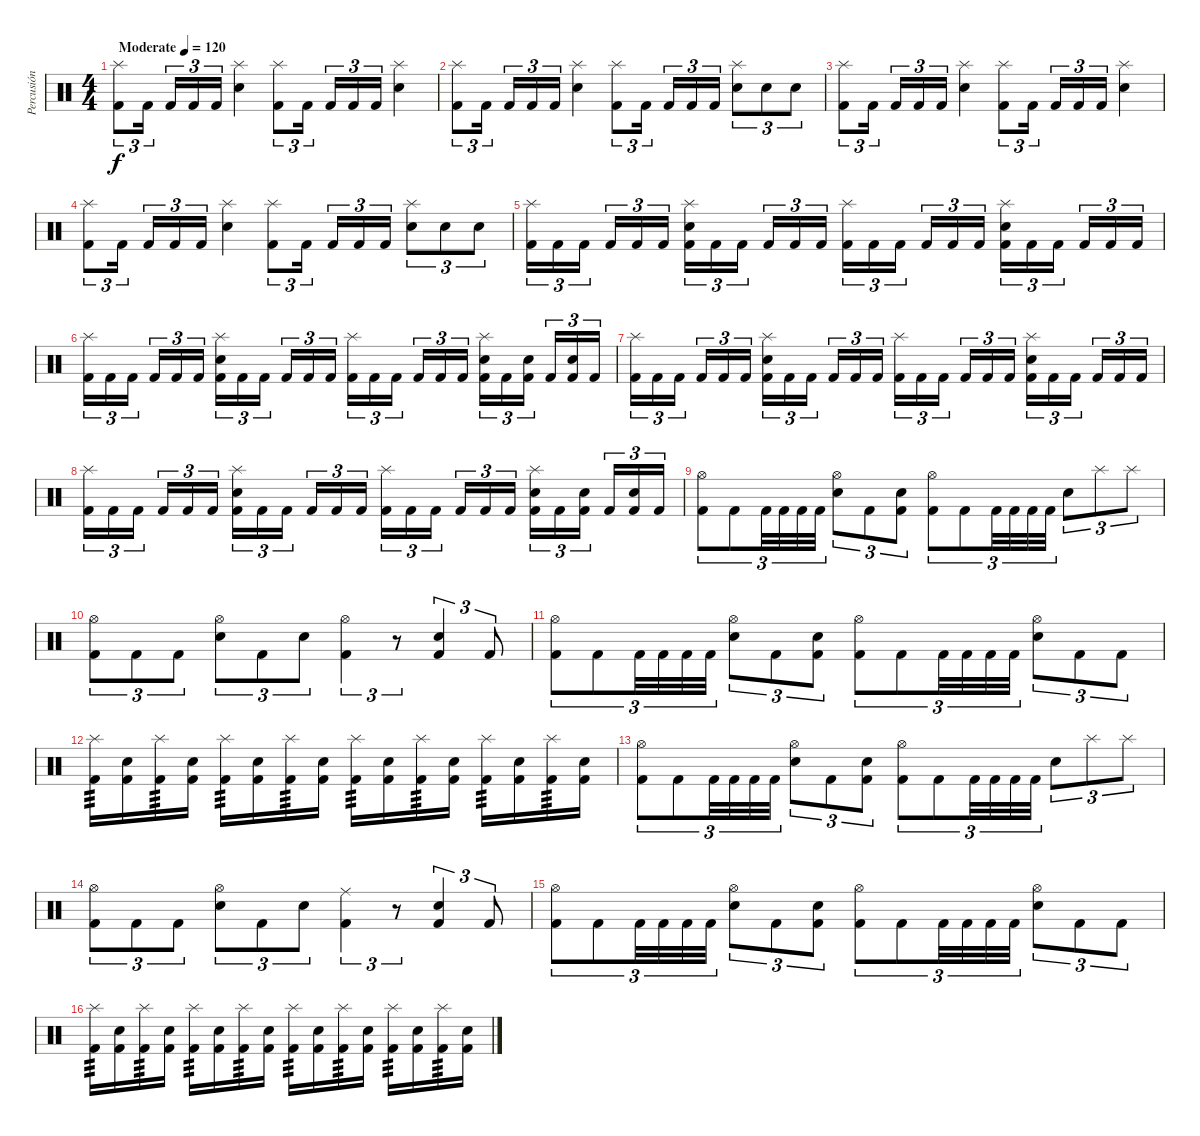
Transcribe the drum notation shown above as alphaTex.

\track ("Percusión" "Percusión") {instrument percussion}
\staff {score}
\articulation defaults
\ts (4 4)
\tempo (120 "Moderate")
\clef neutral
\ks c
("Splash (hit)" "Kick (hit) 2").8{tu (3 2) dy f} "Kick (hit) 2".16{tu (3 2) beam splitsecondary} "Kick (hit) 2".16{tu (3 2)} "Kick (hit) 2".16{tu (3 2)} "Kick (hit) 2".16{tu (3 2)} ("Splash (hit)" "Electric Snare (hit)").4 ("Splash (hit)" "Kick (hit) 2").8{tu (3 2)} "Kick (hit) 2".16{tu (3 2) beam splitsecondary} "Kick (hit) 2".16{tu (3 2)} "Kick (hit) 2".16{tu (3 2)} "Kick (hit) 2".16{tu (3 2)} ("Splash (hit)" "Electric Snare (hit)").4 |
("Splash (hit)" "Kick (hit) 2").8{tu (3 2)} "Kick (hit) 2".16{tu (3 2) beam splitsecondary} "Kick (hit) 2".16{tu (3 2)} "Kick (hit) 2".16{tu (3 2)} "Kick (hit) 2".16{tu (3 2)} ("Splash (hit)" "Electric Snare (hit)").4 ("Splash (hit)" "Kick (hit) 2").8{tu (3 2)} "Kick (hit) 2".16{tu (3 2) beam splitsecondary} "Kick (hit) 2".16{tu (3 2)} "Kick (hit) 2".16{tu (3 2)} "Kick (hit) 2".16{tu (3 2)} ("Splash (hit)" "Electric Snare (hit)").8{tu (3 2)} "Electric Snare (hit)".8{tu (3 2)} "Electric Snare (hit)".8{tu (3 2)} |
("Splash (hit)" "Kick (hit) 2").8{tu (3 2)} "Kick (hit) 2".16{tu (3 2) beam splitsecondary} "Kick (hit) 2".16{tu (3 2)} "Kick (hit) 2".16{tu (3 2)} "Kick (hit) 2".16{tu (3 2)} ("Splash (hit)" "Electric Snare (hit)").4 ("Splash (hit)" "Kick (hit) 2").8{tu (3 2)} "Kick (hit) 2".16{tu (3 2) beam splitsecondary} "Kick (hit) 2".16{tu (3 2)} "Kick (hit) 2".16{tu (3 2)} "Kick (hit) 2".16{tu (3 2)} ("Splash (hit)" "Electric Snare (hit)").4 |
("Splash (hit)" "Kick (hit) 2").8{tu (3 2)} "Kick (hit) 2".16{tu (3 2) beam splitsecondary} "Kick (hit) 2".16{tu (3 2)} "Kick (hit) 2".16{tu (3 2)} "Kick (hit) 2".16{tu (3 2)} ("Splash (hit)" "Electric Snare (hit)").4 ("Splash (hit)" "Kick (hit) 2").8{tu (3 2)} "Kick (hit) 2".16{tu (3 2) beam splitsecondary} "Kick (hit) 2".16{tu (3 2)} "Kick (hit) 2".16{tu (3 2)} "Kick (hit) 2".16{tu (3 2)} ("Splash (hit)" "Electric Snare (hit)").8{tu (3 2)} "Electric Snare (hit)".8{tu (3 2)} "Electric Snare (hit)".8{tu (3 2)} |
("Splash (hit)" "Kick (hit) 2").16{tu (3 2)} "Kick (hit) 2".16{tu (3 2)} "Kick (hit) 2".16{tu (3 2) beam splitsecondary} "Kick (hit) 2".16{tu (3 2)} "Kick (hit) 2".16{tu (3 2)} "Kick (hit) 2".16{tu (3 2)} ("Splash (hit)" "Electric Snare (hit)" "Kick (hit) 2").16{tu (3 2)} "Kick (hit) 2".16{tu (3 2)} "Kick (hit) 2".16{tu (3 2) beam splitsecondary} "Kick (hit) 2".16{tu (3 2)} "Kick (hit) 2".16{tu (3 2)} "Kick (hit) 2".16{tu (3 2)} ("Splash (hit)" "Kick (hit) 2").16{tu (3 2)} "Kick (hit) 2".16{tu (3 2)} "Kick (hit) 2".16{tu (3 2) beam splitsecondary} "Kick (hit) 2".16{tu (3 2)} "Kick (hit) 2".16{tu (3 2)} "Kick (hit) 2".16{tu (3 2)} ("Splash (hit)" "Electric Snare (hit)" "Kick (hit) 2").16{tu (3 2)} "Kick (hit) 2".16{tu (3 2)} "Kick (hit) 2".16{tu (3 2) beam splitsecondary} "Kick (hit) 2".16{tu (3 2)} "Kick (hit) 2".16{tu (3 2)} "Kick (hit) 2".16{tu (3 2)} |
("Splash (hit)" "Kick (hit) 2").16{tu (3 2)} "Kick (hit) 2".16{tu (3 2)} "Kick (hit) 2".16{tu (3 2) beam splitsecondary} "Kick (hit) 2".16{tu (3 2)} "Kick (hit) 2".16{tu (3 2)} "Kick (hit) 2".16{tu (3 2)} ("Splash (hit)" "Electric Snare (hit)" "Kick (hit) 2").16{tu (3 2)} "Kick (hit) 2".16{tu (3 2)} "Kick (hit) 2".16{tu (3 2) beam splitsecondary} "Kick (hit) 2".16{tu (3 2)} "Kick (hit) 2".16{tu (3 2)} "Kick (hit) 2".16{tu (3 2)} ("Splash (hit)" "Kick (hit) 2").16{tu (3 2)} "Kick (hit) 2".16{tu (3 2)} "Kick (hit) 2".16{tu (3 2) beam splitsecondary} "Kick (hit) 2".16{tu (3 2)} "Kick (hit) 2".16{tu (3 2)} "Kick (hit) 2".16{tu (3 2)} ("Splash (hit)" "Electric Snare (hit)" "Kick (hit) 2").16{tu (3 2)} "Kick (hit) 2".16{tu (3 2)} ("Electric Snare (hit)" "Kick (hit) 2").16{tu (3 2) beam splitsecondary} "Kick (hit) 2".16{tu (3 2)} ("Electric Snare (hit)" "Kick (hit) 2").16{tu (3 2)} "Kick (hit) 2".16{tu (3 2)} |
("Splash (hit)" "Kick (hit) 2").16{tu (3 2)} "Kick (hit) 2".16{tu (3 2)} "Kick (hit) 2".16{tu (3 2) beam splitsecondary} "Kick (hit) 2".16{tu (3 2)} "Kick (hit) 2".16{tu (3 2)} "Kick (hit) 2".16{tu (3 2)} ("Splash (hit)" "Electric Snare (hit)" "Kick (hit) 2").16{tu (3 2)} "Kick (hit) 2".16{tu (3 2)} "Kick (hit) 2".16{tu (3 2) beam splitsecondary} "Kick (hit) 2".16{tu (3 2)} "Kick (hit) 2".16{tu (3 2)} "Kick (hit) 2".16{tu (3 2)} ("Splash (hit)" "Kick (hit) 2").16{tu (3 2)} "Kick (hit) 2".16{tu (3 2)} "Kick (hit) 2".16{tu (3 2) beam splitsecondary} "Kick (hit) 2".16{tu (3 2)} "Kick (hit) 2".16{tu (3 2)} "Kick (hit) 2".16{tu (3 2)} ("Splash (hit)" "Electric Snare (hit)" "Kick (hit) 2").16{tu (3 2)} "Kick (hit) 2".16{tu (3 2)} "Kick (hit) 2".16{tu (3 2) beam splitsecondary} "Kick (hit) 2".16{tu (3 2)} "Kick (hit) 2".16{tu (3 2)} "Kick (hit) 2".16{tu (3 2)} |
("Splash (hit)" "Kick (hit) 2").16{tu (3 2)} "Kick (hit) 2".16{tu (3 2)} "Kick (hit) 2".16{tu (3 2) beam splitsecondary} "Kick (hit) 2".16{tu (3 2)} "Kick (hit) 2".16{tu (3 2)} "Kick (hit) 2".16{tu (3 2)} ("Splash (hit)" "Electric Snare (hit)" "Kick (hit) 2").16{tu (3 2)} "Kick (hit) 2".16{tu (3 2)} "Kick (hit) 2".16{tu (3 2) beam splitsecondary} "Kick (hit) 2".16{tu (3 2)} "Kick (hit) 2".16{tu (3 2)} "Kick (hit) 2".16{tu (3 2)} ("Splash (hit)" "Kick (hit) 2").16{tu (3 2)} "Kick (hit) 2".16{tu (3 2)} "Kick (hit) 2".16{tu (3 2) beam splitsecondary} "Kick (hit) 2".16{tu (3 2)} "Kick (hit) 2".16{tu (3 2)} "Kick (hit) 2".16{tu (3 2)} ("Splash (hit)" "Electric Snare (hit)" "Kick (hit) 2").16{tu (3 2)} "Kick (hit) 2".16{tu (3 2)} ("Electric Snare (hit)" "Kick (hit) 2").16{tu (3 2) beam splitsecondary} "Kick (hit) 2".16{tu (3 2)} ("Electric Snare (hit)" "Kick (hit) 2").16{tu (3 2)} "Kick (hit) 2".16{tu (3 2)} |
("Hi-Hat (open)" "Kick (hit) 2").8{tu (3 2)} "Kick (hit) 2".8{tu (3 2)} "Kick (hit) 2".32{tu (3 2)} "Kick (hit) 2".32{tu (3 2)} "Kick (hit) 2".32{tu (3 2)} "Kick (hit) 2".32{tu (3 2)} ("Hi-Hat (open)" "Electric Snare (hit)").8{tu (3 2)} "Kick (hit) 2".8{tu (3 2)} ("Electric Snare (hit)" "Kick (hit) 2").8{tu (3 2)} ("Hi-Hat (open)" "Kick (hit) 2").8{tu (3 2)} "Kick (hit) 2".8{tu (3 2)} "Kick (hit) 2".32{tu (3 2)} "Kick (hit) 2".32{tu (3 2)} "Kick (hit) 2".32{tu (3 2)} "Kick (hit) 2".32{tu (3 2)} "Electric Snare (hit)".8{tu (3 2)} "Splash (hit)".8{tu (3 2)} "Splash (hit)".8{tu (3 2)} |
("Hi-Hat (open)" "Kick (hit) 2").8{tu (3 2)} "Kick (hit) 2".8{tu (3 2)} "Kick (hit) 2".8{tu (3 2)} ("Hi-Hat (open)" "Electric Snare (hit)").8{tu (3 2)} "Kick (hit) 2".8{tu (3 2)} "Electric Snare (hit)".8{tu (3 2)} ("Hi-Hat (open)" "Kick (hit) 2").4{tu (3 2)} r.8{tu (3 2)} ("Electric Snare (hit)" "Kick (hit) 2").4{tu (3 2)} "Kick (hit) 2".8{tu (3 2)} |
("Hi-Hat (open)" "Kick (hit) 2").8{tu (3 2)} "Kick (hit) 2".8{tu (3 2)} "Kick (hit) 2".32{tu (3 2)} "Kick (hit) 2".32{tu (3 2)} "Kick (hit) 2".32{tu (3 2)} "Kick (hit) 2".32{tu (3 2)} ("Hi-Hat (open)" "Electric Snare (hit)").8{tu (3 2)} "Kick (hit) 2".8{tu (3 2)} ("Electric Snare (hit)" "Kick (hit) 2").8{tu (3 2)} ("Hi-Hat (open)" "Kick (hit) 2").8{tu (3 2)} "Kick (hit) 2".8{tu (3 2)} "Kick (hit) 2".32{tu (3 2)} "Kick (hit) 2".32{tu (3 2)} "Kick (hit) 2".32{tu (3 2)} "Kick (hit) 2".32{tu (3 2)} ("Hi-Hat (open)" "Electric Snare (hit)").8{tu (3 2)} "Kick (hit) 2".8{tu (3 2)} "Kick (hit) 2".8{tu (3 2)} |
("Splash (hit)" "Kick (hit) 2").16{tp 3} ("Electric Snare (hit)" "Kick (hit) 2").16 ("Splash (hit)" "Kick (hit) 2").16{tp 3} ("Electric Snare (hit)" "Kick (hit) 2").16 ("Splash (hit)" "Kick (hit) 2").16{tp 3} ("Electric Snare (hit)" "Kick (hit) 2").16 ("Splash (hit)" "Kick (hit) 2").16{tp 3} ("Electric Snare (hit)" "Kick (hit) 2").16 ("Splash (hit)" "Kick (hit) 2").16{tp 3} ("Electric Snare (hit)" "Kick (hit) 2").16 ("Splash (hit)" "Kick (hit) 2").16{tp 3} ("Electric Snare (hit)" "Kick (hit) 2").16 ("Splash (hit)" "Kick (hit) 2").16{tp 3} ("Electric Snare (hit)" "Kick (hit) 2").16 ("Splash (hit)" "Kick (hit) 2").16{tp 3} ("Electric Snare (hit)" "Kick (hit) 2").16 |
("Hi-Hat (open)" "Kick (hit) 2").8{tu (3 2)} "Kick (hit) 2".8{tu (3 2)} "Kick (hit) 2".32{tu (3 2)} "Kick (hit) 2".32{tu (3 2)} "Kick (hit) 2".32{tu (3 2)} "Kick (hit) 2".32{tu (3 2)} ("Hi-Hat (open)" "Electric Snare (hit)").8{tu (3 2)} "Kick (hit) 2".8{tu (3 2)} ("Electric Snare (hit)" "Kick (hit) 2").8{tu (3 2)} ("Hi-Hat (open)" "Kick (hit) 2").8{tu (3 2)} "Kick (hit) 2".8{tu (3 2)} "Kick (hit) 2".32{tu (3 2)} "Kick (hit) 2".32{tu (3 2)} "Kick (hit) 2".32{tu (3 2)} "Kick (hit) 2".32{tu (3 2)} "Electric Snare (hit)".8{tu (3 2)} "Splash (hit)".8{tu (3 2)} "Splash (hit)".8{tu (3 2)} |
("Hi-Hat (open)" "Kick (hit) 2").8{tu (3 2)} "Kick (hit) 2".8{tu (3 2)} "Kick (hit) 2".8{tu (3 2)} ("Hi-Hat (open)" "Electric Snare (hit)").8{tu (3 2)} "Kick (hit) 2".8{tu (3 2)} "Electric Snare (hit)".8{tu (3 2)} ("Ride (middle)" "Kick (hit) 2").4{tu (3 2)} r.8{tu (3 2)} ("Electric Snare (hit)" "Kick (hit) 2").4{tu (3 2)} "Kick (hit) 2".8{tu (3 2)} |
("Hi-Hat (open)" "Kick (hit) 2").8{tu (3 2)} "Kick (hit) 2".8{tu (3 2)} "Kick (hit) 2".32{tu (3 2)} "Kick (hit) 2".32{tu (3 2)} "Kick (hit) 2".32{tu (3 2)} "Kick (hit) 2".32{tu (3 2)} ("Hi-Hat (open)" "Electric Snare (hit)").8{tu (3 2)} "Kick (hit) 2".8{tu (3 2)} ("Electric Snare (hit)" "Kick (hit) 2").8{tu (3 2)} ("Hi-Hat (open)" "Kick (hit) 2").8{tu (3 2)} "Kick (hit) 2".8{tu (3 2)} "Kick (hit) 2".32{tu (3 2)} "Kick (hit) 2".32{tu (3 2)} "Kick (hit) 2".32{tu (3 2)} "Kick (hit) 2".32{tu (3 2)} ("Hi-Hat (open)" "Electric Snare (hit)").8{tu (3 2)} "Kick (hit) 2".8{tu (3 2)} "Kick (hit) 2".8{tu (3 2)} |
("Splash (hit)" "Kick (hit) 2").16{tp 3} ("Electric Snare (hit)" "Kick (hit) 2").16 ("Splash (hit)" "Kick (hit) 2").16{tp 3} ("Electric Snare (hit)" "Kick (hit) 2").16 ("Splash (hit)" "Kick (hit) 2").16{tp 3} ("Electric Snare (hit)" "Kick (hit) 2").16 ("Splash (hit)" "Kick (hit) 2").16{tp 3} ("Electric Snare (hit)" "Kick (hit) 2").16 ("Splash (hit)" "Kick (hit) 2").16{tp 3} ("Electric Snare (hit)" "Kick (hit) 2").16 ("Splash (hit)" "Kick (hit) 2").16{tp 3} ("Electric Snare (hit)" "Kick (hit) 2").16 ("Splash (hit)" "Kick (hit) 2").16{tp 3} ("Electric Snare (hit)" "Kick (hit) 2").16 ("Splash (hit)" "Kick (hit) 2").16{tp 3} ("Electric Snare (hit)" "Kick (hit) 2").16
